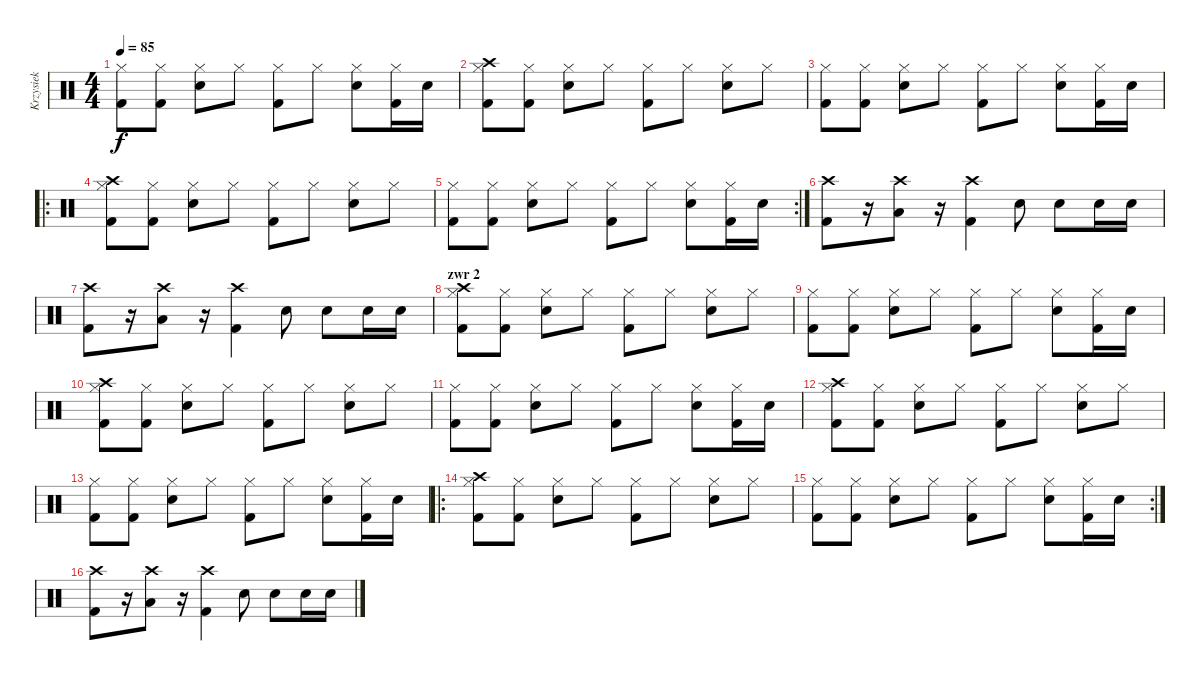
\track ("Krzysiek" "Krzysiek") {instrument percussion}
\staff {score}
\articulation defaults
\ts (4 4)
\tempo 85
\clef neutral
\ks c
("Hi-Hat (closed)" "Kick (hit) 2").8{dy f} ("Hi-Hat (closed)" "Kick (hit) 2").8 ("Hi-Hat (closed)" "Electric Snare (hit)").8 "Hi-Hat (closed)".8 ("Hi-Hat (closed)" "Kick (hit) 2").8 "Hi-Hat (closed)".8 ("Hi-Hat (closed)" "Electric Snare (hit)").8 ("Hi-Hat (closed)" "Kick (hit) 2").16 "Electric Snare (hit)".16 |
("Hi-Hat (closed)" "Kick (hit) 2" "Crash high (hit)").8 ("Hi-Hat (closed)" "Kick (hit) 2").8 ("Hi-Hat (closed)" "Electric Snare (hit)").8 "Hi-Hat (closed)".8 ("Hi-Hat (closed)" "Kick (hit) 2").8 "Hi-Hat (closed)".8 ("Hi-Hat (closed)" "Electric Snare (hit)").8 "Hi-Hat (closed)".8 |
("Hi-Hat (closed)" "Kick (hit) 2").8 ("Hi-Hat (closed)" "Kick (hit) 2").8 ("Hi-Hat (closed)" "Electric Snare (hit)").8 "Hi-Hat (closed)".8 ("Hi-Hat (closed)" "Kick (hit) 2").8 "Hi-Hat (closed)".8 ("Hi-Hat (closed)" "Electric Snare (hit)").8 ("Hi-Hat (closed)" "Kick (hit) 2").16 "Electric Snare (hit)".16 |
\ro
("Hi-Hat (closed)" "Kick (hit) 2" "Crash high (hit)").8 ("Hi-Hat (closed)" "Kick (hit) 2").8 ("Hi-Hat (closed)" "Electric Snare (hit)").8 "Hi-Hat (closed)".8 ("Hi-Hat (closed)" "Kick (hit) 2").8 "Hi-Hat (closed)".8 ("Hi-Hat (closed)" "Electric Snare (hit)").8 "Hi-Hat (closed)".8 |
\rc 2
("Hi-Hat (closed)" "Kick (hit) 2").8 ("Hi-Hat (closed)" "Kick (hit) 2").8 ("Hi-Hat (closed)" "Electric Snare (hit)").8 "Hi-Hat (closed)".8 ("Hi-Hat (closed)" "Kick (hit) 2").8 "Hi-Hat (closed)".8 ("Hi-Hat (closed)" "Electric Snare (hit)").8 ("Hi-Hat (closed)" "Kick (hit) 2").16 "Electric Snare (hit)".16 |
("Crash high (hit)" "Kick (hit) 2").8 r.16 ("Crash high (hit)" "Low Tom (hit)").8 r.16 ("Crash high (hit)" "Kick (hit) 2").4 "Electric Snare (hit)".8 "Electric Snare (hit)".8 "Electric Snare (hit)".16 "Electric Snare (hit)".16 |
("Crash high (hit)" "Kick (hit) 2").8 r.16 ("Crash high (hit)" "Low Tom (hit)").8 r.16 ("Crash high (hit)" "Kick (hit) 2").4 "Electric Snare (hit)".8 "Electric Snare (hit)".8 "Electric Snare (hit)".16 "Electric Snare (hit)".16 |
\section ("" "zwr 2")
("Hi-Hat (closed)" "Kick (hit) 2" "Crash high (hit)").8 ("Hi-Hat (closed)" "Kick (hit) 2").8 ("Hi-Hat (closed)" "Electric Snare (hit)").8 "Hi-Hat (closed)".8 ("Hi-Hat (closed)" "Kick (hit) 2").8 "Hi-Hat (closed)".8 ("Hi-Hat (closed)" "Electric Snare (hit)").8 "Hi-Hat (closed)".8 |
("Hi-Hat (closed)" "Kick (hit) 2").8 ("Hi-Hat (closed)" "Kick (hit) 2").8 ("Hi-Hat (closed)" "Electric Snare (hit)").8 "Hi-Hat (closed)".8 ("Hi-Hat (closed)" "Kick (hit) 2").8 "Hi-Hat (closed)".8 ("Hi-Hat (closed)" "Electric Snare (hit)").8 ("Hi-Hat (closed)" "Kick (hit) 2").16 "Electric Snare (hit)".16 |
("Hi-Hat (closed)" "Kick (hit) 2" "Crash high (hit)").8 ("Hi-Hat (closed)" "Kick (hit) 2").8 ("Hi-Hat (closed)" "Electric Snare (hit)").8 "Hi-Hat (closed)".8 ("Hi-Hat (closed)" "Kick (hit) 2").8 "Hi-Hat (closed)".8 ("Hi-Hat (closed)" "Electric Snare (hit)").8 "Hi-Hat (closed)".8 |
("Hi-Hat (closed)" "Kick (hit) 2").8 ("Hi-Hat (closed)" "Kick (hit) 2").8 ("Hi-Hat (closed)" "Electric Snare (hit)").8 "Hi-Hat (closed)".8 ("Hi-Hat (closed)" "Kick (hit) 2").8 "Hi-Hat (closed)".8 ("Hi-Hat (closed)" "Electric Snare (hit)").8 ("Hi-Hat (closed)" "Kick (hit) 2").16 "Electric Snare (hit)".16 |
("Hi-Hat (closed)" "Kick (hit) 2" "Crash high (hit)").8 ("Hi-Hat (closed)" "Kick (hit) 2").8 ("Hi-Hat (closed)" "Electric Snare (hit)").8 "Hi-Hat (closed)".8 ("Hi-Hat (closed)" "Kick (hit) 2").8 "Hi-Hat (closed)".8 ("Hi-Hat (closed)" "Electric Snare (hit)").8 "Hi-Hat (closed)".8 |
("Hi-Hat (closed)" "Kick (hit) 2").8 ("Hi-Hat (closed)" "Kick (hit) 2").8 ("Hi-Hat (closed)" "Electric Snare (hit)").8 "Hi-Hat (closed)".8 ("Hi-Hat (closed)" "Kick (hit) 2").8 "Hi-Hat (closed)".8 ("Hi-Hat (closed)" "Electric Snare (hit)").8 ("Hi-Hat (closed)" "Kick (hit) 2").16 "Electric Snare (hit)".16 |
\ro
("Hi-Hat (closed)" "Kick (hit) 2" "Crash high (hit)").8 ("Hi-Hat (closed)" "Kick (hit) 2").8 ("Hi-Hat (closed)" "Electric Snare (hit)").8 "Hi-Hat (closed)".8 ("Hi-Hat (closed)" "Kick (hit) 2").8 "Hi-Hat (closed)".8 ("Hi-Hat (closed)" "Electric Snare (hit)").8 "Hi-Hat (closed)".8 |
\rc 2
("Hi-Hat (closed)" "Kick (hit) 2").8 ("Hi-Hat (closed)" "Kick (hit) 2").8 ("Hi-Hat (closed)" "Electric Snare (hit)").8 "Hi-Hat (closed)".8 ("Hi-Hat (closed)" "Kick (hit) 2").8 "Hi-Hat (closed)".8 ("Hi-Hat (closed)" "Electric Snare (hit)").8 ("Hi-Hat (closed)" "Kick (hit) 2").16 "Electric Snare (hit)".16 |
("Crash high (hit)" "Kick (hit) 2").8 r.16 ("Crash high (hit)" "Low Tom (hit)").8 r.16 ("Crash high (hit)" "Kick (hit) 2").4 "Electric Snare (hit)".8 "Electric Snare (hit)".8 "Electric Snare (hit)".16 "Electric Snare (hit)".16
